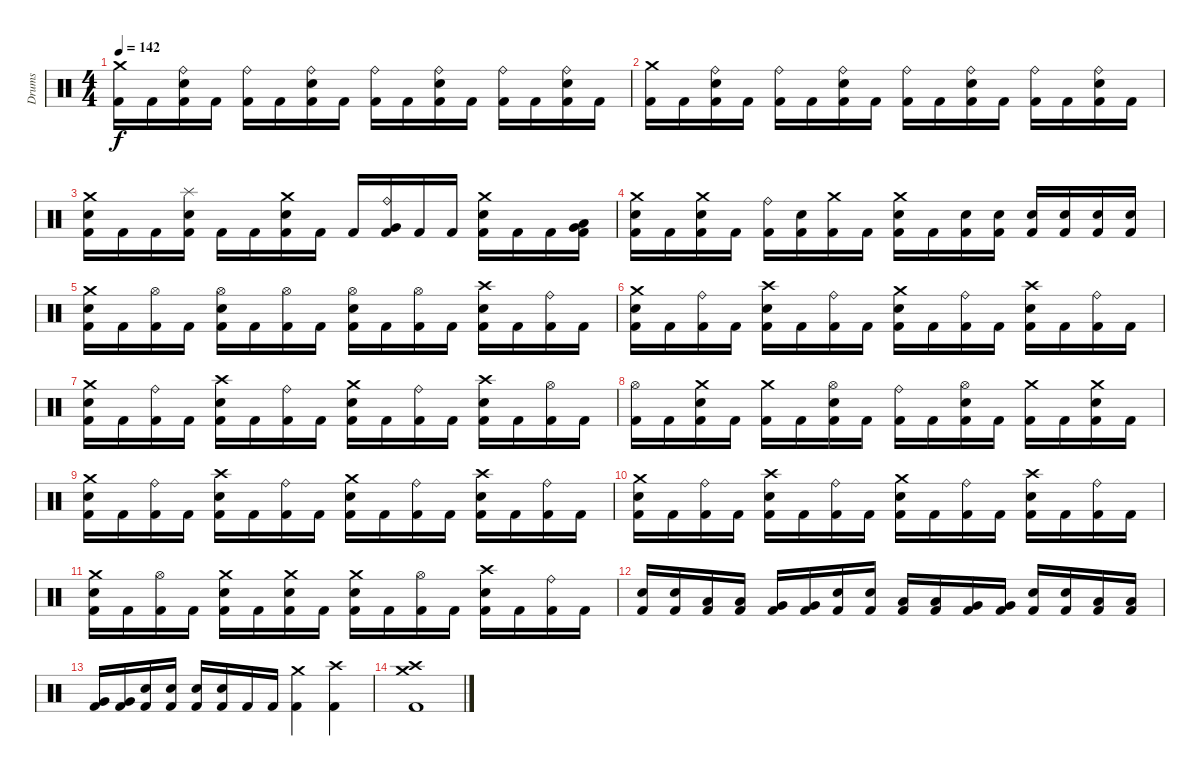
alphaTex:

\track ("Drums" "Drums") {instrument percussion}
\staff {score}
\articulation defaults
\ts (4 4)
\tempo 142
\clef neutral
\ks c
("Crash medium (hit)" "Kick (hit) 2").16{dy f} "Kick (hit) 2".16 ("Ride (bell)" "Electric Snare (hit)" "Kick (hit) 2").16 "Kick (hit) 2".16 ("Ride (bell)" "Kick (hit) 2").16 "Kick (hit) 2".16 ("Ride (bell)" "Electric Snare (hit)" "Kick (hit) 2").16 "Kick (hit) 2".16 ("Ride (bell)" "Kick (hit) 2").16 "Kick (hit) 2".16 ("Ride (bell)" "Electric Snare (hit)" "Kick (hit) 2").16 "Kick (hit) 2".16 ("Ride (bell)" "Kick (hit) 2").16 "Kick (hit) 2".16 ("Ride (bell)" "Electric Snare (hit)" "Kick (hit) 2").16 "Kick (hit) 2".16 |
("Crash medium (hit)" "Kick (hit) 2").16 "Kick (hit) 2".16 ("Ride (bell)" "Electric Snare (hit)" "Kick (hit) 2").16 "Kick (hit) 2".16 ("Ride (bell)" "Kick (hit) 2").16 "Kick (hit) 2".16 ("Ride (bell)" "Electric Snare (hit)" "Kick (hit) 2").16 "Kick (hit) 2".16 ("Ride (bell)" "Kick (hit) 2").16 "Kick (hit) 2".16 ("Ride (bell)" "Electric Snare (hit)" "Kick (hit) 2").16 "Kick (hit) 2".16 ("Ride (bell)" "Kick (hit) 2").16 "Kick (hit) 2".16 ("Ride (bell)" "Electric Snare (hit)" "Kick (hit) 2").16 "Kick (hit) 2".16 |
("Crash medium (hit)" "Electric Snare (hit)" "Kick (hit) 2").16 "Kick (hit) 2".16 "Kick (hit) 2".16 ("Splash (hit)" "Electric Snare (hit)" "Kick (hit) 2").16 "Kick (hit) 2".16 "Kick (hit) 2".16 ("Crash medium (hit)" "Electric Snare (hit)" "Kick (hit) 2").16 "Kick (hit) 2".16 "Kick (hit) 2".16 ("Ride (bell)" "Very Low Tom (hit)" "Kick (hit) 2").16 "Kick (hit) 2".16 "Kick (hit) 2".16 ("Crash medium (hit)" "Electric Snare (hit)" "Kick (hit) 2").16 "Kick (hit) 2".16 "Kick (hit) 2".16 ("Low Floor Tom (hit)" "Very Low Tom (hit)" "Kick (hit) 2").16 |
("Crash medium (hit)" "Electric Snare (hit)" "Kick (hit) 2").16 "Kick (hit) 2".16 ("Crash medium (hit)" "Electric Snare (hit)" "Kick (hit) 2").16 "Kick (hit) 2".16 ("Ride (bell)" "Kick (hit) 2").16 ("Electric Snare (hit)" "Kick (hit) 2").16 ("Crash medium (hit)" "Kick (hit) 2").16 "Kick (hit) 2".16 ("Crash medium (hit)" "Electric Snare (hit)" "Kick (hit) 2").16 "Kick (hit) 2".16 ("Electric Snare (hit)" "Kick (hit) 2").16 ("Electric Snare (hit)" "Kick (hit) 2").16 ("Electric Snare (hit)" "Kick (hit) 2").16 ("Electric Snare (hit)" "Kick (hit) 2").16 ("Electric Snare (hit)" "Kick (hit) 2").16 ("Electric Snare (hit)" "Kick (hit) 2").16 |
("Crash medium (hit)" "Electric Snare (hit)" "Kick (hit) 2").16 "Kick (hit) 2".16 ("Hi-Hat (open)" "Kick (hit) 2").16 "Kick (hit) 2".16 ("Hi-Hat (open)" "Electric Snare (hit)" "Kick (hit) 2").16 "Kick (hit) 2".16 ("Hi-Hat (open)" "Kick (hit) 2").16 "Kick (hit) 2".16 ("Hi-Hat (open)" "Electric Snare (hit)" "Kick (hit) 2").16 "Kick (hit) 2".16 ("Hi-Hat (open)" "Kick (hit) 2").16 "Kick (hit) 2".16 ("Crash high (hit)" "Electric Snare (hit)" "Kick (hit) 2").16 "Kick (hit) 2".16 ("Ride (bell)" "Kick (hit) 2").16 "Kick (hit) 2".16 |
("Crash medium (hit)" "Electric Snare (hit)" "Kick (hit) 2").16 "Kick (hit) 2".16 ("Ride (bell)" "Kick (hit) 2").16 "Kick (hit) 2".16 ("Crash high (hit)" "Electric Snare (hit)" "Kick (hit) 2").16 "Kick (hit) 2".16 ("Ride (bell)" "Kick (hit) 2").16 "Kick (hit) 2".16 ("Crash medium (hit)" "Electric Snare (hit)" "Kick (hit) 2").16 "Kick (hit) 2".16 ("Ride (bell)" "Kick (hit) 2").16 "Kick (hit) 2".16 ("Crash high (hit)" "Electric Snare (hit)" "Kick (hit) 2").16 "Kick (hit) 2".16 ("Ride (bell)" "Kick (hit) 2").16 "Kick (hit) 2".16 |
("Crash medium (hit)" "Electric Snare (hit)" "Kick (hit) 2").16 "Kick (hit) 2".16 ("Ride (bell)" "Kick (hit) 2").16 "Kick (hit) 2".16 ("Crash high (hit)" "Electric Snare (hit)" "Kick (hit) 2").16 "Kick (hit) 2".16 ("Ride (bell)" "Kick (hit) 2").16 "Kick (hit) 2".16 ("Crash medium (hit)" "Electric Snare (hit)" "Kick (hit) 2").16 "Kick (hit) 2".16 ("Ride (bell)" "Kick (hit) 2").16 "Kick (hit) 2".16 ("Crash high (hit)" "Electric Snare (hit)" "Kick (hit) 2").16 "Kick (hit) 2".16 ("Hi-Hat (open)" "Kick (hit) 2").16 "Kick (hit) 2".16 |
("Hi-Hat (open)" "Kick (hit) 2").16 "Kick (hit) 2".16 ("Crash medium (hit)" "Electric Snare (hit)" "Kick (hit) 2").16 "Kick (hit) 2".16 ("Crash medium (hit)" "Kick (hit) 2").16 "Kick (hit) 2".16 ("Hi-Hat (open)" "Electric Snare (hit)" "Kick (hit) 2").16 "Kick (hit) 2".16 ("Ride (bell)" "Kick (hit) 2").16 "Kick (hit) 2".16 ("Hi-Hat (open)" "Electric Snare (hit)" "Kick (hit) 2").16 "Kick (hit) 2".16 ("Crash medium (hit)" "Kick (hit) 2").16 "Kick (hit) 2".16 ("Crash medium (hit)" "Electric Snare (hit)" "Kick (hit) 2").16 "Kick (hit) 2".16 |
("Crash medium (hit)" "Electric Snare (hit)" "Kick (hit) 2").16 "Kick (hit) 2".16 ("Ride (bell)" "Kick (hit) 2").16 "Kick (hit) 2".16 ("Crash high (hit)" "Electric Snare (hit)" "Kick (hit) 2").16 "Kick (hit) 2".16 ("Ride (bell)" "Kick (hit) 2").16 "Kick (hit) 2".16 ("Crash medium (hit)" "Electric Snare (hit)" "Kick (hit) 2").16 "Kick (hit) 2".16 ("Ride (bell)" "Kick (hit) 2").16 "Kick (hit) 2".16 ("Crash high (hit)" "Electric Snare (hit)" "Kick (hit) 2").16 "Kick (hit) 2".16 ("Ride (bell)" "Kick (hit) 2").16 "Kick (hit) 2".16 |
("Crash medium (hit)" "Electric Snare (hit)" "Kick (hit) 2").16 "Kick (hit) 2".16 ("Ride (bell)" "Kick (hit) 2").16 "Kick (hit) 2".16 ("Crash high (hit)" "Electric Snare (hit)" "Kick (hit) 2").16 "Kick (hit) 2".16 ("Ride (bell)" "Kick (hit) 2").16 "Kick (hit) 2".16 ("Crash medium (hit)" "Electric Snare (hit)" "Kick (hit) 2").16 "Kick (hit) 2".16 ("Ride (bell)" "Kick (hit) 2").16 "Kick (hit) 2".16 ("Crash high (hit)" "Electric Snare (hit)" "Kick (hit) 2").16 "Kick (hit) 2".16 ("Ride (bell)" "Kick (hit) 2").16 "Kick (hit) 2".16 |
("Crash medium (hit)" "Electric Snare (hit)" "Kick (hit) 2").16 "Kick (hit) 2".16 ("Hi-Hat (open)" "Kick (hit) 2").16 "Kick (hit) 2".16 ("Crash medium (hit)" "Electric Snare (hit)" "Kick (hit) 2").16 "Kick (hit) 2".16 ("Crash medium (hit)" "Electric Snare (hit)" "Kick (hit) 2").16 "Kick (hit) 2".16 ("Crash medium (hit)" "Electric Snare (hit)" "Kick (hit) 2").16 "Kick (hit) 2".16 ("Hi-Hat (open)" "Kick (hit) 2").16 "Kick (hit) 2".16 ("Crash high (hit)" "Electric Snare (hit)" "Kick (hit) 2").16 "Kick (hit) 2".16 ("Ride (bell)" "Kick (hit) 2").16 "Kick (hit) 2".16 |
("Electric Snare (hit)" "Kick (hit) 2").16 ("Electric Snare (hit)" "Kick (hit) 2").16 ("Low Tom (hit)" "Kick (hit) 2").16 ("Low Tom (hit)" "Kick (hit) 2").16 ("Very Low Tom (hit)" "Kick (hit) 2").16 ("Very Low Tom (hit)" "Kick (hit) 2").16 ("Electric Snare (hit)" "Kick (hit) 2").16 ("Electric Snare (hit)" "Kick (hit) 2").16 ("Low Tom (hit)" "Kick (hit) 2").16 ("Low Tom (hit)" "Kick (hit) 2").16 ("Very Low Tom (hit)" "Kick (hit) 2").16 ("Very Low Tom (hit)" "Kick (hit) 2").16 ("Electric Snare (hit)" "Kick (hit) 2").16 ("Electric Snare (hit)" "Kick (hit) 2").16 ("Low Tom (hit)" "Kick (hit) 2").16 ("Low Tom (hit)" "Kick (hit) 2").16 |
("Very Low Tom (hit)" "Kick (hit) 2").16 ("Very Low Tom (hit)" "Kick (hit) 2").16 ("Electric Snare (hit)" "Kick (hit) 2").16 ("Electric Snare (hit)" "Kick (hit) 2").16 ("Electric Snare (hit)" "Kick (hit) 2").16 ("Electric Snare (hit)" "Kick (hit) 2").16 "Kick (hit) 2".16 "Kick (hit) 2".16 ("Crash medium (hit)" "Kick (hit) 2").4 ("Crash high (hit)" "Kick (hit) 2").4 |
("Crash medium (hit)" "Crash high (hit)" "Kick (hit) 2").1
